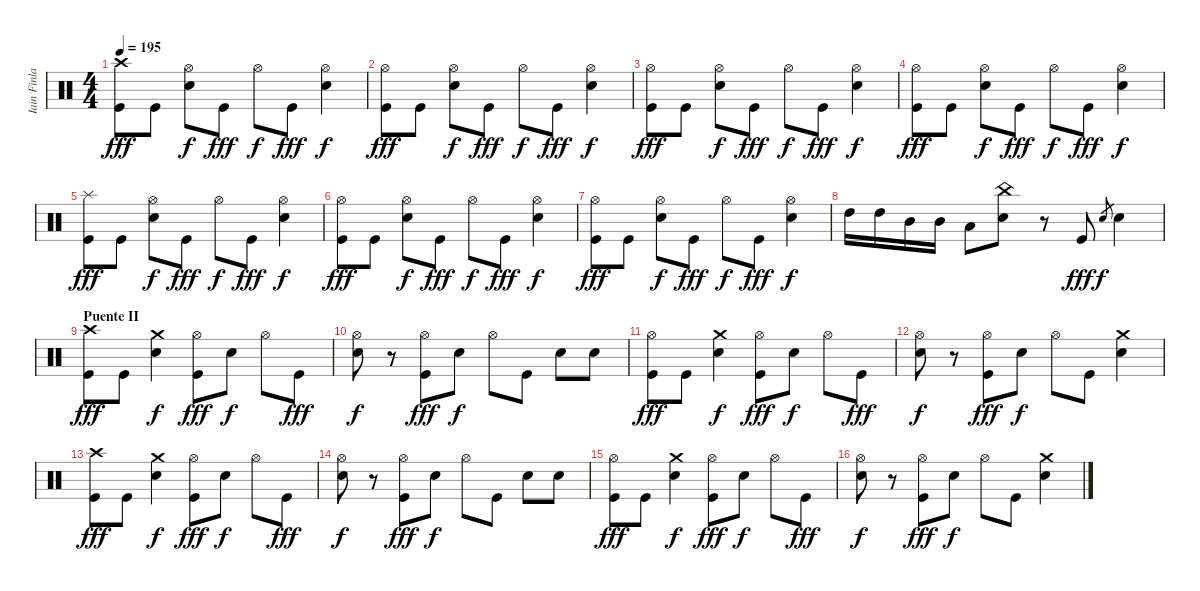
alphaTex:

\track ("Iain Finlay (Batería)" "Iain Finla") {instrument percussion}
\staff {score}
\articulation defaults
\ts (4 4)
\tempo 195
\clef neutral
\ks c
("Crash high (hit)" "Kick (hit)").8{dy fff} "Kick (hit)".8 ("Hi-Hat (open)" "Electric Snare (hit)").8{dy f} "Kick (hit)".8{dy fff} "Hi-Hat (open)".8{dy f} "Kick (hit)".8{dy fff} ("Hi-Hat (open)" "Electric Snare (hit)").4{dy f} |
("Hi-Hat (open)" "Kick (hit)").8{dy fff} "Kick (hit)".8 ("Hi-Hat (open)" "Electric Snare (hit)").8{dy f} "Kick (hit)".8{dy fff} "Hi-Hat (open)".8{dy f} "Kick (hit)".8{dy fff} ("Hi-Hat (open)" "Electric Snare (hit)").4{dy f} |
("Hi-Hat (open)" "Kick (hit)").8{dy fff} "Kick (hit)".8 ("Hi-Hat (open)" "Electric Snare (hit)").8{dy f} "Kick (hit)".8{dy fff} "Hi-Hat (open)".8{dy f} "Kick (hit)".8{dy fff} ("Hi-Hat (open)" "Electric Snare (hit)").4{dy f} |
("Hi-Hat (open)" "Kick (hit)").8{dy fff} "Kick (hit)".8 ("Hi-Hat (open)" "Electric Snare (hit)").8{dy f} "Kick (hit)".8{dy fff} "Hi-Hat (open)".8{dy f} "Kick (hit)".8{dy fff} ("Hi-Hat (open)" "Electric Snare (hit)").4{dy f} |
("Splash (hit)" "Kick (hit)").8{dy fff} "Kick (hit)".8 ("Hi-Hat (open)" "Electric Snare (hit)").8{dy f} "Kick (hit)".8{dy fff} "Hi-Hat (open)".8{dy f} "Kick (hit)".8{dy fff} ("Hi-Hat (open)" "Electric Snare (hit)").4{dy f} |
("Hi-Hat (open)" "Kick (hit)").8{dy fff} "Kick (hit)".8 ("Hi-Hat (open)" "Electric Snare (hit)").8{dy f} "Kick (hit)".8{dy fff} "Hi-Hat (open)".8{dy f} "Kick (hit)".8{dy fff} ("Hi-Hat (open)" "Electric Snare (hit)").4{dy f} |
("Hi-Hat (open)" "Kick (hit)").8{dy fff} "Kick (hit)".8 ("Hi-Hat (open)" "Electric Snare (hit)").8{dy f} "Kick (hit)".8{dy fff} "Hi-Hat (open)".8{dy f} "Kick (hit)".8{dy fff} ("Hi-Hat (open)" "Electric Snare (hit)").4{dy f} |
"High Tom (hit)".16 "High Tom (hit)".16 "Mid Tom (hit)".16 "Mid Tom (hit)".16 "Low Tom (hit)".8 ("China (hit)" "Electric Snare (hit)").8 r.8 "Kick (hit)".8{dy fff} "Electric Snare (hit)".8{gr dy f} "Electric Snare (hit)".4 |
\section ("" "Puente II")
("Crash high (hit)" "Kick (hit)").8{dy fff} "Kick (hit)".8 ("Crash medium (hit)" "Electric Snare (hit)").4{dy f} ("Hi-Hat (open)" "Kick (hit)").8{dy fff} "Electric Snare (hit)".8{dy f} "Hi-Hat (open)".8 "Kick (hit)".8{dy fff} |
("Hi-Hat (open)" "Electric Snare (hit)").8{dy f} r.8 ("Hi-Hat (open)" "Kick (hit)").8{dy fff} "Electric Snare (hit)".8{dy f} "Hi-Hat (open)".8 "Kick (hit)".8 "Electric Snare (hit)".8 "Electric Snare (hit)".8 |
("Hi-Hat (open)" "Kick (hit)").8{dy fff} "Kick (hit)".8 ("Crash medium (hit)" "Electric Snare (hit)").4{dy f} ("Hi-Hat (open)" "Kick (hit)").8{dy fff} "Electric Snare (hit)".8{dy f} "Hi-Hat (open)".8 "Kick (hit)".8{dy fff} |
("Hi-Hat (open)" "Electric Snare (hit)").8{dy f} r.8 ("Hi-Hat (open)" "Kick (hit)").8{dy fff} "Electric Snare (hit)".8{dy f} "Hi-Hat (open)".8 "Kick (hit)".8 ("Crash medium (hit)" "Electric Snare (hit)").4 |
("Crash high (hit)" "Kick (hit)").8{dy fff} "Kick (hit)".8 ("Crash medium (hit)" "Electric Snare (hit)").4{dy f} ("Hi-Hat (open)" "Kick (hit)").8{dy fff} "Electric Snare (hit)".8{dy f} "Hi-Hat (open)".8 "Kick (hit)".8{dy fff} |
("Hi-Hat (open)" "Electric Snare (hit)").8{dy f} r.8 ("Hi-Hat (open)" "Kick (hit)").8{dy fff} "Electric Snare (hit)".8{dy f} "Hi-Hat (open)".8 "Kick (hit)".8 "Electric Snare (hit)".8 "Electric Snare (hit)".8 |
("Hi-Hat (open)" "Kick (hit)").8{dy fff} "Kick (hit)".8 ("Crash medium (hit)" "Electric Snare (hit)").4{dy f} ("Hi-Hat (open)" "Kick (hit)").8{dy fff} "Electric Snare (hit)".8{dy f} "Hi-Hat (open)".8 "Kick (hit)".8{dy fff} |
("Hi-Hat (open)" "Electric Snare (hit)").8{dy f} r.8 ("Hi-Hat (open)" "Kick (hit)").8{dy fff} "Electric Snare (hit)".8{dy f} "Hi-Hat (open)".8 "Kick (hit)".8 ("Crash medium (hit)" "Electric Snare (hit)").4
